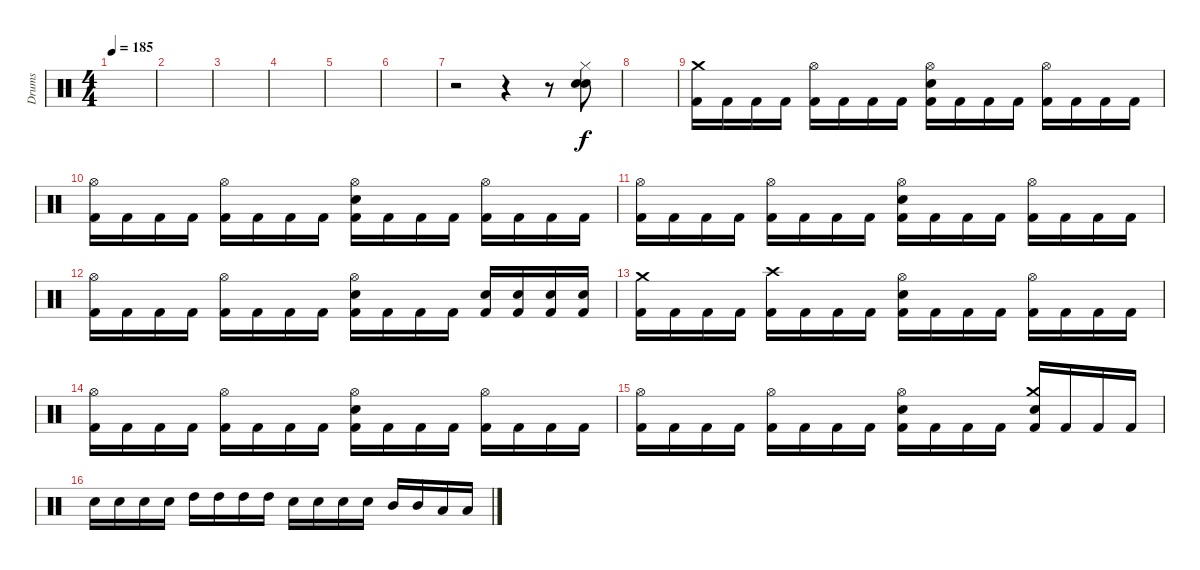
\track ("Drums" "Drums") {instrument percussion}
\staff {score}
\articulation defaults
\ts (4 4)
\tempo 185
\clef neutral
\ks c
|
|
|
|
|
|
r.2 r.4 r.8 ("Hi-Hat (closed)" "Electric Snare (hit)" "Snare (hit) 2").8 |
|
("Crash medium (hit)" "Kick (hit) 2").16 "Kick (hit) 2".16 "Kick (hit) 2".16 "Kick (hit) 2".16 ("Hi-Hat (open)" "Kick (hit) 2").16 "Kick (hit) 2".16 "Kick (hit) 2".16 "Kick (hit) 2".16 ("Hi-Hat (open)" "Electric Snare (hit)" "Kick (hit) 2").16 "Kick (hit) 2".16 "Kick (hit) 2".16 "Kick (hit) 2".16 ("Hi-Hat (open)" "Kick (hit) 2").16 "Kick (hit) 2".16 "Kick (hit) 2".16 "Kick (hit) 2".16 |
("Hi-Hat (open)" "Kick (hit) 2").16 "Kick (hit) 2".16 "Kick (hit) 2".16 "Kick (hit) 2".16 ("Hi-Hat (open)" "Kick (hit) 2").16 "Kick (hit) 2".16 "Kick (hit) 2".16 "Kick (hit) 2".16 ("Hi-Hat (open)" "Electric Snare (hit)" "Kick (hit) 2").16 "Kick (hit) 2".16 "Kick (hit) 2".16 "Kick (hit) 2".16 ("Hi-Hat (open)" "Kick (hit) 2").16 "Kick (hit) 2".16 "Kick (hit) 2".16 "Kick (hit) 2".16 |
("Hi-Hat (open)" "Kick (hit) 2").16 "Kick (hit) 2".16 "Kick (hit) 2".16 "Kick (hit) 2".16 ("Hi-Hat (open)" "Kick (hit) 2").16 "Kick (hit) 2".16 "Kick (hit) 2".16 "Kick (hit) 2".16 ("Hi-Hat (open)" "Electric Snare (hit)" "Kick (hit) 2").16 "Kick (hit) 2".16 "Kick (hit) 2".16 "Kick (hit) 2".16 ("Hi-Hat (open)" "Kick (hit) 2").16 "Kick (hit) 2".16 "Kick (hit) 2".16 "Kick (hit) 2".16 |
("Hi-Hat (open)" "Kick (hit) 2").16 "Kick (hit) 2".16 "Kick (hit) 2".16 "Kick (hit) 2".16 ("Hi-Hat (open)" "Kick (hit) 2").16 "Kick (hit) 2".16 "Kick (hit) 2".16 "Kick (hit) 2".16 ("Hi-Hat (open)" "Electric Snare (hit)" "Kick (hit) 2").16 "Kick (hit) 2".16 "Kick (hit) 2".16 "Kick (hit) 2".16 ("Electric Snare (hit)" "Kick (hit) 2").16 ("Electric Snare (hit)" "Kick (hit) 2").16 ("Electric Snare (hit)" "Kick (hit) 2").16 ("Electric Snare (hit)" "Kick (hit) 2").16 |
("Crash medium (hit)" "Kick (hit) 2").16 "Kick (hit) 2".16 "Kick (hit) 2".16 "Kick (hit) 2".16 ("Crash high (hit)" "Kick (hit) 2").16 "Kick (hit) 2".16 "Kick (hit) 2".16 "Kick (hit) 2".16 ("Hi-Hat (open)" "Electric Snare (hit)" "Kick (hit) 2").16 "Kick (hit) 2".16 "Kick (hit) 2".16 "Kick (hit) 2".16 ("Hi-Hat (open)" "Kick (hit) 2").16 "Kick (hit) 2".16 "Kick (hit) 2".16 "Kick (hit) 2".16 |
("Hi-Hat (open)" "Kick (hit) 2").16 "Kick (hit) 2".16 "Kick (hit) 2".16 "Kick (hit) 2".16 ("Hi-Hat (open)" "Kick (hit) 2").16 "Kick (hit) 2".16 "Kick (hit) 2".16 "Kick (hit) 2".16 ("Hi-Hat (open)" "Electric Snare (hit)" "Kick (hit) 2").16 "Kick (hit) 2".16 "Kick (hit) 2".16 "Kick (hit) 2".16 ("Hi-Hat (open)" "Kick (hit) 2").16 "Kick (hit) 2".16 "Kick (hit) 2".16 "Kick (hit) 2".16 |
("Hi-Hat (open)" "Kick (hit) 2").16 "Kick (hit) 2".16 "Kick (hit) 2".16 "Kick (hit) 2".16 ("Hi-Hat (open)" "Kick (hit) 2").16 "Kick (hit) 2".16 "Kick (hit) 2".16 "Kick (hit) 2".16 ("Hi-Hat (open)" "Electric Snare (hit)" "Kick (hit) 2").16 "Kick (hit) 2".16 "Kick (hit) 2".16 "Kick (hit) 2".16 ("Crash medium (hit)" "Electric Snare (hit)" "Kick (hit) 2").16 "Kick (hit) 2".16 "Kick (hit) 2".16 "Kick (hit) 2".16 |
"Electric Snare (hit)".16 "Electric Snare (hit)".16 "Electric Snare (hit)".16 "Electric Snare (hit)".16 "High Tom (hit)".16 "High Tom (hit)".16 "High Tom (hit)".16 "High Tom (hit)".16 "Electric Snare (hit)".16 "Electric Snare (hit)".16 "Electric Snare (hit)".16 "Electric Snare (hit)".16 "Mid Tom (hit)".16 "Mid Tom (hit)".16 "Low Tom (hit)".16 "Low Tom (hit)".16
